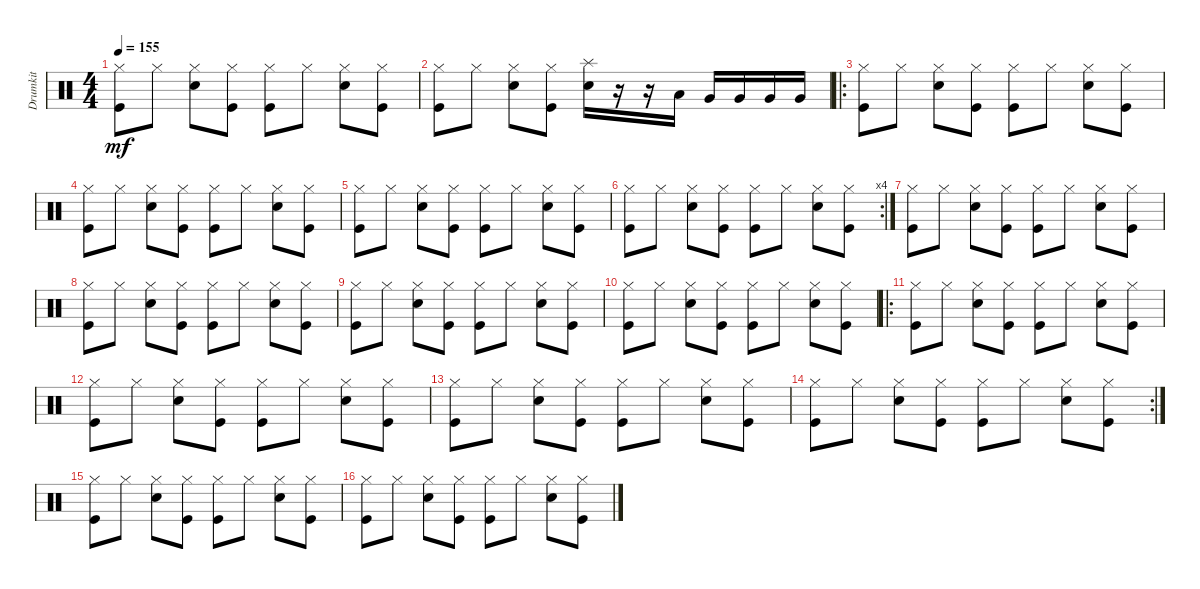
\track ("Drumkit" "Drumkit") {instrument percussion}
\staff {score}
\articulation defaults
\ts (4 4)
\tempo 155
\clef neutral
\ks c
("Hi-Hat (closed)" "Kick (hit)").8{dy mf} "Hi-Hat (closed)".8 ("Hi-Hat (closed)" "Snare (hit) 2").8 ("Hi-Hat (closed)" "Kick (hit)").8 ("Hi-Hat (closed)" "Kick (hit)").8 "Hi-Hat (closed)".8 ("Hi-Hat (closed)" "Snare (hit) 2").8 ("Hi-Hat (closed)" "Kick (hit)").8 |
("Hi-Hat (closed)" "Kick (hit)").8 "Hi-Hat (closed)".8 ("Hi-Hat (closed)" "Snare (hit) 2").8 ("Hi-Hat (closed)" "Kick (hit)").8 ("Splash (hit)" "Snare (hit) 2").16 r.16 r.16 "Low Tom (hit)".16 "Very Low Tom (hit)".16 "Very Low Tom (hit)".16 "Very Low Tom (hit)".16 "Very Low Tom (hit)".16 |
\ro
("Hi-Hat (closed)" "Kick (hit)").8 "Hi-Hat (closed)".8 ("Hi-Hat (closed)" "Snare (hit) 2").8 ("Hi-Hat (closed)" "Kick (hit)").8 ("Hi-Hat (closed)" "Kick (hit)").8 "Hi-Hat (closed)".8 ("Hi-Hat (closed)" "Snare (hit) 2").8 ("Hi-Hat (closed)" "Kick (hit)").8 |
("Hi-Hat (closed)" "Kick (hit)").8 "Hi-Hat (closed)".8 ("Hi-Hat (closed)" "Snare (hit) 2").8 ("Hi-Hat (closed)" "Kick (hit)").8 ("Hi-Hat (closed)" "Kick (hit)").8 "Hi-Hat (closed)".8 ("Hi-Hat (closed)" "Snare (hit) 2").8 ("Hi-Hat (closed)" "Kick (hit)").8 |
("Hi-Hat (closed)" "Kick (hit)").8 "Hi-Hat (closed)".8 ("Hi-Hat (closed)" "Snare (hit) 2").8 ("Hi-Hat (closed)" "Kick (hit)").8 ("Hi-Hat (closed)" "Kick (hit)").8 "Hi-Hat (closed)".8 ("Hi-Hat (closed)" "Snare (hit) 2").8 ("Hi-Hat (closed)" "Kick (hit)").8 |
\rc 4
("Hi-Hat (closed)" "Kick (hit)").8 "Hi-Hat (closed)".8 ("Hi-Hat (closed)" "Snare (hit) 2").8 ("Hi-Hat (closed)" "Kick (hit)").8 ("Hi-Hat (closed)" "Kick (hit)").8 "Hi-Hat (closed)".8 ("Hi-Hat (closed)" "Snare (hit) 2").8 ("Hi-Hat (closed)" "Kick (hit)").8 |
("Hi-Hat (closed)" "Kick (hit)").8 "Hi-Hat (closed)".8 ("Hi-Hat (closed)" "Snare (hit) 2").8 ("Hi-Hat (closed)" "Kick (hit)").8 ("Hi-Hat (closed)" "Kick (hit)").8 "Hi-Hat (closed)".8 ("Hi-Hat (closed)" "Snare (hit) 2").8 ("Hi-Hat (closed)" "Kick (hit)").8 |
("Hi-Hat (closed)" "Kick (hit)").8 "Hi-Hat (closed)".8 ("Hi-Hat (closed)" "Snare (hit) 2").8 ("Hi-Hat (closed)" "Kick (hit)").8 ("Hi-Hat (closed)" "Kick (hit)").8 "Hi-Hat (closed)".8 ("Hi-Hat (closed)" "Snare (hit) 2").8 ("Hi-Hat (closed)" "Kick (hit)").8 |
("Hi-Hat (closed)" "Kick (hit)").8 "Hi-Hat (closed)".8 ("Hi-Hat (closed)" "Snare (hit) 2").8 ("Hi-Hat (closed)" "Kick (hit)").8 ("Hi-Hat (closed)" "Kick (hit)").8 "Hi-Hat (closed)".8 ("Hi-Hat (closed)" "Snare (hit) 2").8 ("Hi-Hat (closed)" "Kick (hit)").8 |
("Hi-Hat (closed)" "Kick (hit)").8 "Hi-Hat (closed)".8 ("Hi-Hat (closed)" "Snare (hit) 2").8 ("Hi-Hat (closed)" "Kick (hit)").8 ("Hi-Hat (closed)" "Kick (hit)").8 "Hi-Hat (closed)".8 ("Hi-Hat (closed)" "Snare (hit) 2").8 ("Hi-Hat (closed)" "Kick (hit)").8 |
\ro
("Hi-Hat (closed)" "Kick (hit)").8 "Hi-Hat (closed)".8 ("Hi-Hat (closed)" "Snare (hit) 2").8 ("Hi-Hat (closed)" "Kick (hit)").8 ("Hi-Hat (closed)" "Kick (hit)").8 "Hi-Hat (closed)".8 ("Hi-Hat (closed)" "Snare (hit) 2").8 ("Hi-Hat (closed)" "Kick (hit)").8 |
("Hi-Hat (closed)" "Kick (hit)").8 "Hi-Hat (closed)".8 ("Hi-Hat (closed)" "Snare (hit) 2").8 ("Hi-Hat (closed)" "Kick (hit)").8 ("Hi-Hat (closed)" "Kick (hit)").8 "Hi-Hat (closed)".8 ("Hi-Hat (closed)" "Snare (hit) 2").8 ("Hi-Hat (closed)" "Kick (hit)").8 |
("Hi-Hat (closed)" "Kick (hit)").8 "Hi-Hat (closed)".8 ("Hi-Hat (closed)" "Snare (hit) 2").8 ("Hi-Hat (closed)" "Kick (hit)").8 ("Hi-Hat (closed)" "Kick (hit)").8 "Hi-Hat (closed)".8 ("Hi-Hat (closed)" "Snare (hit) 2").8 ("Hi-Hat (closed)" "Kick (hit)").8 |
\rc 2
("Hi-Hat (closed)" "Kick (hit)").8 "Hi-Hat (closed)".8 ("Hi-Hat (closed)" "Snare (hit) 2").8 ("Hi-Hat (closed)" "Kick (hit)").8 ("Hi-Hat (closed)" "Kick (hit)").8 "Hi-Hat (closed)".8 ("Hi-Hat (closed)" "Snare (hit) 2").8 ("Hi-Hat (closed)" "Kick (hit)").8 |
("Hi-Hat (closed)" "Kick (hit)").8 "Hi-Hat (closed)".8 ("Hi-Hat (closed)" "Snare (hit) 2").8 ("Hi-Hat (closed)" "Kick (hit)").8 ("Hi-Hat (closed)" "Kick (hit)").8 "Hi-Hat (closed)".8 ("Hi-Hat (closed)" "Snare (hit) 2").8 ("Hi-Hat (closed)" "Kick (hit)").8 |
("Hi-Hat (closed)" "Kick (hit)").8 "Hi-Hat (closed)".8 ("Hi-Hat (closed)" "Snare (hit) 2").8 ("Hi-Hat (closed)" "Kick (hit)").8 ("Hi-Hat (closed)" "Kick (hit)").8 "Hi-Hat (closed)".8 ("Hi-Hat (closed)" "Snare (hit) 2").8 ("Hi-Hat (closed)" "Kick (hit)").8
